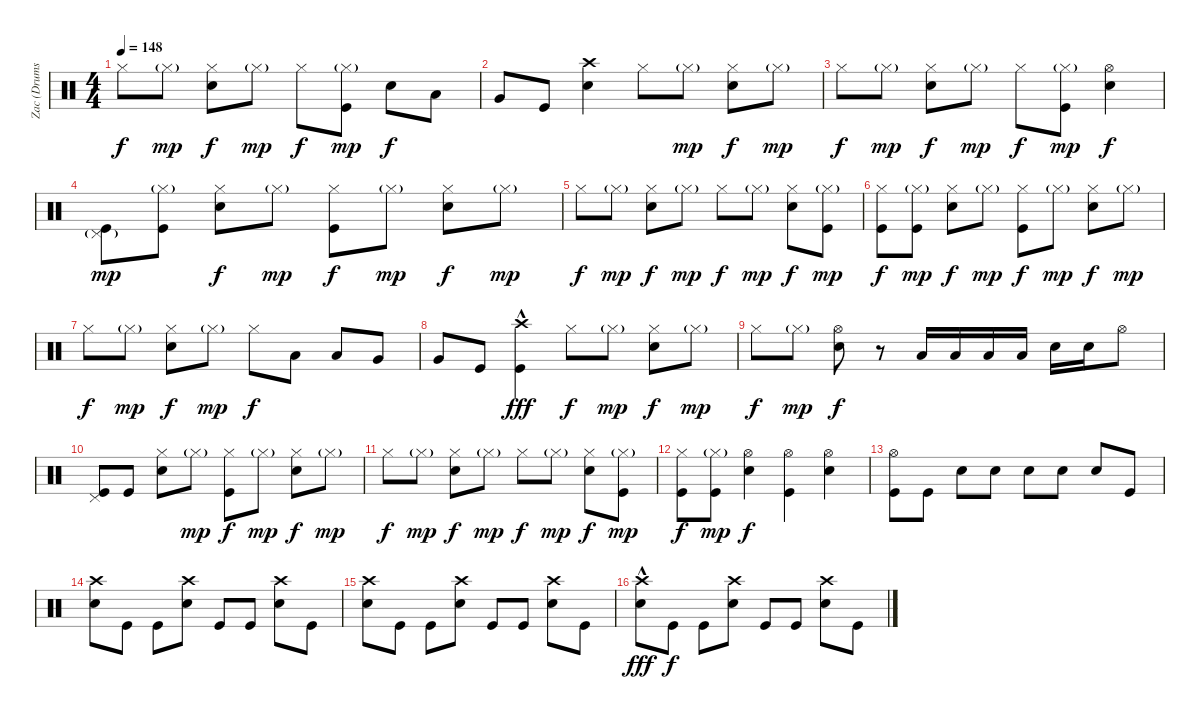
\track ("Zac (Drums)" "Zac (Drums") {instrument percussion}
\staff {score}
\articulation defaults
\ts (4 4)
\tempo 148
\clef neutral
\ks c "Hi-Hat (closed)".8{dy f} "Hi-Hat (closed)"{g}.8{dy mp}
("Hi-Hat (closed)" "Electric Snare (hit)").8{dy f} "Hi-Hat (closed)"{g}.8{dy mp} "Hi-Hat (closed)".8{dy f} ("Hi-Hat (closed)"{g} "Kick (hit)").8{dy mp} "Electric Snare (hit)".8{dy f} "Low Tom (hit)".8 |
"Very Low Tom (hit)".8 "Kick (hit)".8 ("Crash high (hit)" "Electric Snare (hit)").4 "Hi-Hat (closed)".8 "Hi-Hat (closed)"{g}.8{dy mp} ("Hi-Hat (closed)" "Electric Snare (hit)").8{dy f} "Hi-Hat (closed)"{g}.8{dy mp} |
"Hi-Hat (closed)".8{dy f} "Hi-Hat (closed)"{g}.8{dy mp} ("Hi-Hat (closed)" "Electric Snare (hit)").8{dy f} "Hi-Hat (closed)"{g}.8{dy mp} "Hi-Hat (closed)".8{dy f} ("Hi-Hat (closed)"{g} "Kick (hit)").8{dy mp} ("Hi-Hat (open)" "Electric Snare (hit)").4{dy f} |
("Pedal Hi-Hat (hit)"{g} "Kick (hit)").8{dy mp} ("Hi-Hat (closed)"{g} "Kick (hit)").8 ("Hi-Hat (closed)" "Electric Snare (hit)").8{dy f} "Hi-Hat (closed)"{g}.8{dy mp} ("Hi-Hat (closed)" "Kick (hit)").8{dy f} "Hi-Hat (closed)"{g}.8{dy mp} ("Hi-Hat (closed)" "Electric Snare (hit)").8{dy f} "Hi-Hat (closed)"{g}.8{dy mp} |
"Hi-Hat (closed)".8{dy f} "Hi-Hat (closed)"{g}.8{dy mp} ("Hi-Hat (closed)" "Electric Snare (hit)").8{dy f} "Hi-Hat (closed)"{g}.8{dy mp} "Hi-Hat (closed)".8{dy f} "Hi-Hat (closed)"{g}.8{dy mp} ("Hi-Hat (closed)" "Electric Snare (hit)").8{dy f} ("Hi-Hat (closed)"{g} "Kick (hit)").8{dy mp} |
("Hi-Hat (closed)" "Kick (hit)").8{dy f} ("Hi-Hat (closed)"{g} "Kick (hit)").8{dy mp} ("Hi-Hat (closed)" "Electric Snare (hit)").8{dy f} "Hi-Hat (closed)"{g}.8{dy mp} ("Hi-Hat (closed)" "Kick (hit)").8{dy f} "Hi-Hat (closed)"{g}.8{dy mp} ("Hi-Hat (closed)" "Electric Snare (hit)").8{dy f} "Hi-Hat (closed)"{g}.8{dy mp} |
"Hi-Hat (closed)".8{dy f} "Hi-Hat (closed)"{g}.8{dy mp} ("Hi-Hat (closed)" "Electric Snare (hit)").8{dy f} "Hi-Hat (closed)"{g}.8{dy mp} "Hi-Hat (closed)".8{dy f} "Low Tom (hit)".8 "Low Tom (hit)".8 "Very Low Tom (hit)".8 |
"Very Low Tom (hit)".8 "Kick (hit)".8 ("Crash high (hit)"{hac} "Kick (hit)").4{dy fff} "Hi-Hat (closed)".8{dy f} "Hi-Hat (closed)"{g}.8{dy mp} ("Hi-Hat (closed)" "Electric Snare (hit)").8{dy f} "Hi-Hat (closed)"{g}.8{dy mp} |
"Hi-Hat (closed)".8{dy f} "Hi-Hat (closed)"{g}.8{dy mp} ("Hi-Hat (open)" "Electric Snare (hit)").8{dy f} r.8 "Low Tom (hit)".16 "Low Tom (hit)".16 "Low Tom (hit)".16 "Low Tom (hit)".16 "Electric Snare (hit)".16 "Electric Snare (hit)".16 "Hi-Hat (open)".8 |
("Pedal Hi-Hat (hit)" "Kick (hit)").8 "Kick (hit)".8 ("Hi-Hat (closed)" "Electric Snare (hit)").8 "Hi-Hat (closed)"{g}.8{dy mp} ("Hi-Hat (closed)" "Kick (hit)").8{dy f} "Hi-Hat (closed)"{g}.8{dy mp} ("Hi-Hat (closed)" "Electric Snare (hit)").8{dy f} "Hi-Hat (closed)"{g}.8{dy mp} |
"Hi-Hat (closed)".8{dy f} "Hi-Hat (closed)"{g}.8{dy mp} ("Hi-Hat (closed)" "Electric Snare (hit)").8{dy f} "Hi-Hat (closed)"{g}.8{dy mp} "Hi-Hat (closed)".8{dy f} "Hi-Hat (closed)"{g}.8{dy mp} ("Hi-Hat (closed)" "Electric Snare (hit)").8{dy f} ("Hi-Hat (closed)"{g} "Kick (hit)").8{dy mp} |
("Hi-Hat (closed)" "Kick (hit)").8{dy f} ("Hi-Hat (closed)"{g} "Kick (hit)").8{dy mp} ("Hi-Hat (open)" "Electric Snare (hit)").4{dy f} ("Hi-Hat (open)" "Kick (hit)").4 ("Hi-Hat (open)" "Electric Snare (hit)").4 |
("Hi-Hat (open)" "Kick (hit)").8 "Kick (hit)".8 "Electric Snare (hit)".8 "Electric Snare (hit)".8 "Electric Snare (hit)".8 "Electric Snare (hit)".8 "Electric Snare (hit)".8 "Kick (hit)".8 |
("Crash high (hit)" "Electric Snare (hit)").8 "Kick (hit)".8 "Kick (hit)".8 ("Crash high (hit)" "Electric Snare (hit)").8 "Kick (hit)".8 "Kick (hit)".8 ("Crash high (hit)" "Electric Snare (hit)").8 "Kick (hit)".8 |
("Crash high (hit)" "Electric Snare (hit)").8 "Kick (hit)".8 "Kick (hit)".8 ("Crash high (hit)" "Electric Snare (hit)").8 "Kick (hit)".8 "Kick (hit)".8 ("Crash high (hit)" "Electric Snare (hit)").8 "Kick (hit)".8 |
("Crash high (hit)"{hac} "Electric Snare (hit)").8{dy fff} "Kick (hit)".8{dy f} "Kick (hit)".8 ("Crash high (hit)" "Electric Snare (hit)").8 "Kick (hit)".8 "Kick (hit)".8 ("Crash high (hit)" "Electric Snare (hit)").8 "Kick (hit)".8
